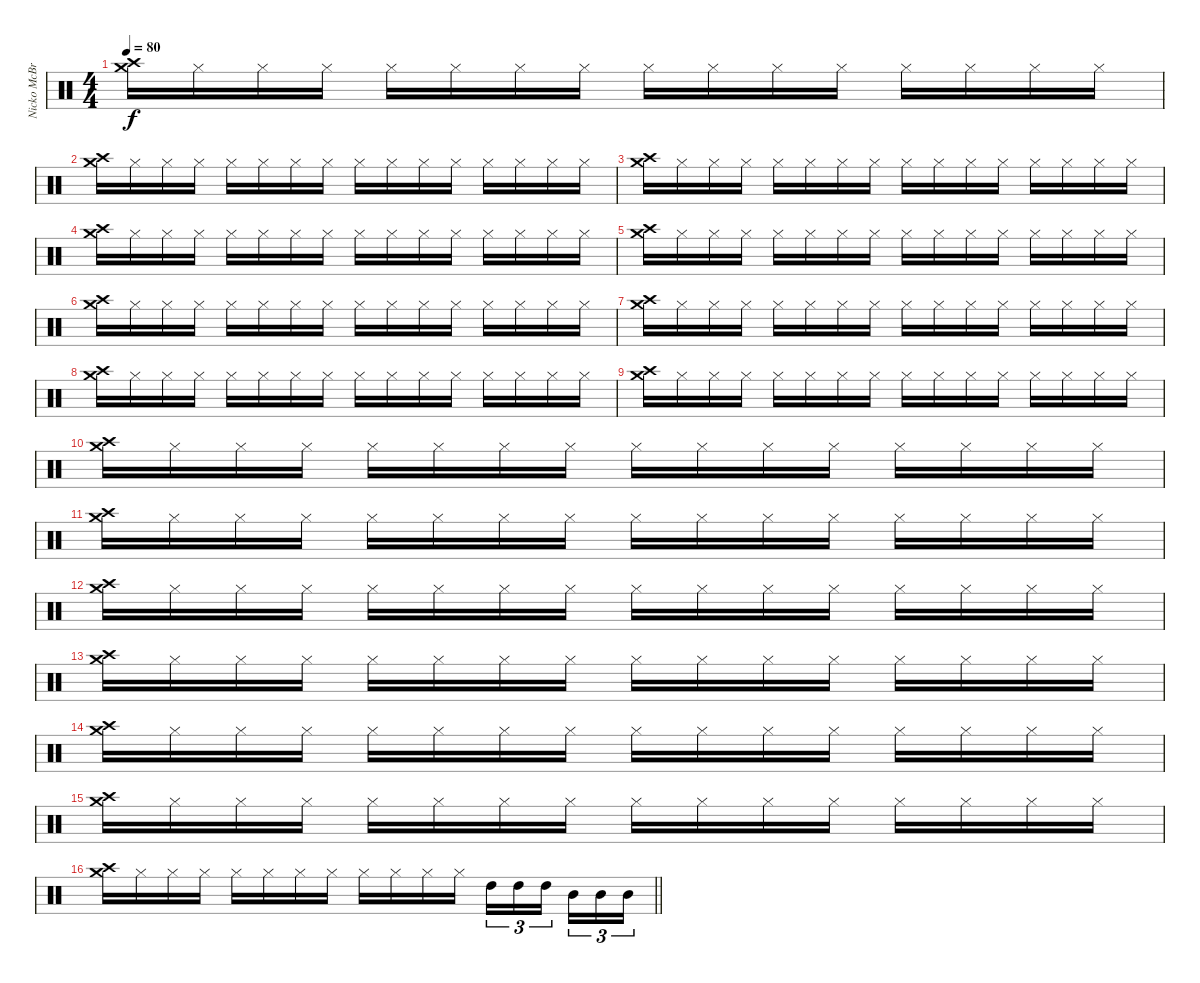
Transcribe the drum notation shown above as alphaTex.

\track ("Nicko McBrain" "Nicko McBr") {instrument percussion}
\staff {score}
\articulation defaults
\ts (4 4)
\tempo 80
\clef neutral
\ks c
("Crash high (hit)" "Crash medium (hit)").16{dy f} "Hi-Hat (closed)".16 "Hi-Hat (closed)".16 "Hi-Hat (closed)".16 "Hi-Hat (closed)".16 "Hi-Hat (closed)".16 "Hi-Hat (closed)".16 "Hi-Hat (closed)".16 "Hi-Hat (closed)".16 "Hi-Hat (closed)".16 "Hi-Hat (closed)".16 "Hi-Hat (closed)".16 "Hi-Hat (closed)".16 "Hi-Hat (closed)".16 "Hi-Hat (closed)".16 "Hi-Hat (closed)".16 |
("Crash high (hit)" "Crash medium (hit)").16 "Hi-Hat (closed)".16 "Hi-Hat (closed)".16 "Hi-Hat (closed)".16 "Hi-Hat (closed)".16 "Hi-Hat (closed)".16 "Hi-Hat (closed)".16 "Hi-Hat (closed)".16 "Hi-Hat (closed)".16 "Hi-Hat (closed)".16 "Hi-Hat (closed)".16 "Hi-Hat (closed)".16 "Hi-Hat (closed)".16 "Hi-Hat (closed)".16 "Hi-Hat (closed)".16 "Hi-Hat (closed)".16 |
("Crash high (hit)" "Crash medium (hit)").16 "Hi-Hat (closed)".16 "Hi-Hat (closed)".16 "Hi-Hat (closed)".16 "Hi-Hat (closed)".16 "Hi-Hat (closed)".16 "Hi-Hat (closed)".16 "Hi-Hat (closed)".16 "Hi-Hat (closed)".16 "Hi-Hat (closed)".16 "Hi-Hat (closed)".16 "Hi-Hat (closed)".16 "Hi-Hat (closed)".16 "Hi-Hat (closed)".16 "Hi-Hat (closed)".16 "Hi-Hat (closed)".16 |
("Crash high (hit)" "Crash medium (hit)").16 "Hi-Hat (closed)".16 "Hi-Hat (closed)".16 "Hi-Hat (closed)".16 "Hi-Hat (closed)".16 "Hi-Hat (closed)".16 "Hi-Hat (closed)".16 "Hi-Hat (closed)".16 "Hi-Hat (closed)".16 "Hi-Hat (closed)".16 "Hi-Hat (closed)".16 "Hi-Hat (closed)".16 "Hi-Hat (closed)".16 "Hi-Hat (closed)".16 "Hi-Hat (closed)".16 "Hi-Hat (closed)".16 |
("Crash high (hit)" "Crash medium (hit)").16 "Hi-Hat (closed)".16 "Hi-Hat (closed)".16 "Hi-Hat (closed)".16 "Hi-Hat (closed)".16 "Hi-Hat (closed)".16 "Hi-Hat (closed)".16 "Hi-Hat (closed)".16 "Hi-Hat (closed)".16 "Hi-Hat (closed)".16 "Hi-Hat (closed)".16 "Hi-Hat (closed)".16 "Hi-Hat (closed)".16 "Hi-Hat (closed)".16 "Hi-Hat (closed)".16 "Hi-Hat (closed)".16 |
("Crash high (hit)" "Crash medium (hit)").16 "Hi-Hat (closed)".16 "Hi-Hat (closed)".16 "Hi-Hat (closed)".16 "Hi-Hat (closed)".16 "Hi-Hat (closed)".16 "Hi-Hat (closed)".16 "Hi-Hat (closed)".16 "Hi-Hat (closed)".16 "Hi-Hat (closed)".16 "Hi-Hat (closed)".16 "Hi-Hat (closed)".16 "Hi-Hat (closed)".16 "Hi-Hat (closed)".16 "Hi-Hat (closed)".16 "Hi-Hat (closed)".16 |
("Crash high (hit)" "Crash medium (hit)").16 "Hi-Hat (closed)".16 "Hi-Hat (closed)".16 "Hi-Hat (closed)".16 "Hi-Hat (closed)".16 "Hi-Hat (closed)".16 "Hi-Hat (closed)".16 "Hi-Hat (closed)".16 "Hi-Hat (closed)".16 "Hi-Hat (closed)".16 "Hi-Hat (closed)".16 "Hi-Hat (closed)".16 "Hi-Hat (closed)".16 "Hi-Hat (closed)".16 "Hi-Hat (closed)".16 "Hi-Hat (closed)".16 |
("Crash high (hit)" "Crash medium (hit)").16 "Hi-Hat (closed)".16 "Hi-Hat (closed)".16 "Hi-Hat (closed)".16 "Hi-Hat (closed)".16 "Hi-Hat (closed)".16 "Hi-Hat (closed)".16 "Hi-Hat (closed)".16 "Hi-Hat (closed)".16 "Hi-Hat (closed)".16 "Hi-Hat (closed)".16 "Hi-Hat (closed)".16 "Hi-Hat (closed)".16 "Hi-Hat (closed)".16 "Hi-Hat (closed)".16 "Hi-Hat (closed)".16 |
("Crash high (hit)" "Crash medium (hit)").16 "Hi-Hat (closed)".16 "Hi-Hat (closed)".16 "Hi-Hat (closed)".16 "Hi-Hat (closed)".16 "Hi-Hat (closed)".16 "Hi-Hat (closed)".16 "Hi-Hat (closed)".16 "Hi-Hat (closed)".16 "Hi-Hat (closed)".16 "Hi-Hat (closed)".16 "Hi-Hat (closed)".16 "Hi-Hat (closed)".16 "Hi-Hat (closed)".16 "Hi-Hat (closed)".16 "Hi-Hat (closed)".16 |
("Crash high (hit)" "Crash medium (hit)").16 "Hi-Hat (closed)".16 "Hi-Hat (closed)".16 "Hi-Hat (closed)".16 "Hi-Hat (closed)".16 "Hi-Hat (closed)".16 "Hi-Hat (closed)".16 "Hi-Hat (closed)".16 "Hi-Hat (closed)".16 "Hi-Hat (closed)".16 "Hi-Hat (closed)".16 "Hi-Hat (closed)".16 "Hi-Hat (closed)".16 "Hi-Hat (closed)".16 "Hi-Hat (closed)".16 "Hi-Hat (closed)".16 |
("Crash high (hit)" "Crash medium (hit)").16 "Hi-Hat (closed)".16 "Hi-Hat (closed)".16 "Hi-Hat (closed)".16 "Hi-Hat (closed)".16 "Hi-Hat (closed)".16 "Hi-Hat (closed)".16 "Hi-Hat (closed)".16 "Hi-Hat (closed)".16 "Hi-Hat (closed)".16 "Hi-Hat (closed)".16 "Hi-Hat (closed)".16 "Hi-Hat (closed)".16 "Hi-Hat (closed)".16 "Hi-Hat (closed)".16 "Hi-Hat (closed)".16 |
("Crash high (hit)" "Crash medium (hit)").16 "Hi-Hat (closed)".16 "Hi-Hat (closed)".16 "Hi-Hat (closed)".16 "Hi-Hat (closed)".16 "Hi-Hat (closed)".16 "Hi-Hat (closed)".16 "Hi-Hat (closed)".16 "Hi-Hat (closed)".16 "Hi-Hat (closed)".16 "Hi-Hat (closed)".16 "Hi-Hat (closed)".16 "Hi-Hat (closed)".16 "Hi-Hat (closed)".16 "Hi-Hat (closed)".16 "Hi-Hat (closed)".16 |
("Crash high (hit)" "Crash medium (hit)").16 "Hi-Hat (closed)".16 "Hi-Hat (closed)".16 "Hi-Hat (closed)".16 "Hi-Hat (closed)".16 "Hi-Hat (closed)".16 "Hi-Hat (closed)".16 "Hi-Hat (closed)".16 "Hi-Hat (closed)".16 "Hi-Hat (closed)".16 "Hi-Hat (closed)".16 "Hi-Hat (closed)".16 "Hi-Hat (closed)".16 "Hi-Hat (closed)".16 "Hi-Hat (closed)".16 "Hi-Hat (closed)".16 |
("Crash high (hit)" "Crash medium (hit)").16 "Hi-Hat (closed)".16 "Hi-Hat (closed)".16 "Hi-Hat (closed)".16 "Hi-Hat (closed)".16 "Hi-Hat (closed)".16 "Hi-Hat (closed)".16 "Hi-Hat (closed)".16 "Hi-Hat (closed)".16 "Hi-Hat (closed)".16 "Hi-Hat (closed)".16 "Hi-Hat (closed)".16 "Hi-Hat (closed)".16 "Hi-Hat (closed)".16 "Hi-Hat (closed)".16 "Hi-Hat (closed)".16 |
("Crash high (hit)" "Crash medium (hit)").16 "Hi-Hat (closed)".16 "Hi-Hat (closed)".16 "Hi-Hat (closed)".16 "Hi-Hat (closed)".16 "Hi-Hat (closed)".16 "Hi-Hat (closed)".16 "Hi-Hat (closed)".16 "Hi-Hat (closed)".16 "Hi-Hat (closed)".16 "Hi-Hat (closed)".16 "Hi-Hat (closed)".16 "Hi-Hat (closed)".16 "Hi-Hat (closed)".16 "Hi-Hat (closed)".16 "Hi-Hat (closed)".16 |
\barLineRight lightlight
("Crash high (hit)" "Crash medium (hit)").16 "Hi-Hat (closed)".16 "Hi-Hat (closed)".16 "Hi-Hat (closed)".16 "Hi-Hat (closed)".16 "Hi-Hat (closed)".16 "Hi-Hat (closed)".16 "Hi-Hat (closed)".16 "Hi-Hat (closed)".16 "Hi-Hat (closed)".16 "Hi-Hat (closed)".16 "Hi-Hat (closed)".16 "High Tom (hit)".16{tu (3 2)} "High Tom (hit)".16{tu (3 2)} "High Tom (hit)".16{tu (3 2) beam splitsecondary} "Mid Tom (hit)".16{tu (3 2)} "Mid Tom (hit)".16{tu (3 2)} "Mid Tom (hit)".16{tu (3 2)}
